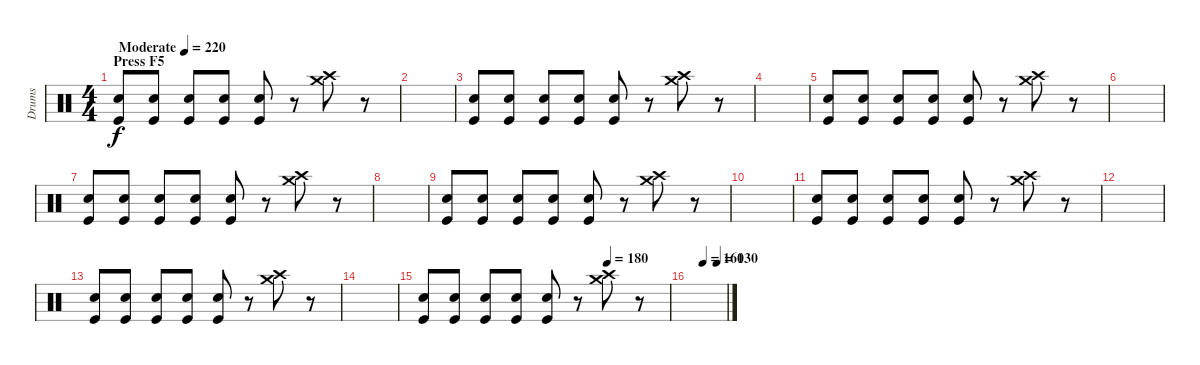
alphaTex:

\track ("Drums" "Drums") {instrument percussion}
\staff {score}
\articulation defaults
\ts (4 4)
\section ("" "Press F5")
\tempo (220 "Moderate")
\clef neutral
\ks c
("Electric Snare (hit)" "Kick (hit)").8{dy f} ("Electric Snare (hit)" "Kick (hit)").8 ("Electric Snare (hit)" "Kick (hit)").8 ("Electric Snare (hit)" "Kick (hit)").8 ("Electric Snare (hit)" "Kick (hit)").8 r.8 ("Crash high (hit)" "Crash medium (hit)").8 r.8 |
|
("Electric Snare (hit)" "Kick (hit)").8 ("Electric Snare (hit)" "Kick (hit)").8 ("Electric Snare (hit)" "Kick (hit)").8 ("Electric Snare (hit)" "Kick (hit)").8 ("Electric Snare (hit)" "Kick (hit)").8 r.8 ("Crash high (hit)" "Crash medium (hit)").8 r.8 |
|
("Electric Snare (hit)" "Kick (hit)").8 ("Electric Snare (hit)" "Kick (hit)").8 ("Electric Snare (hit)" "Kick (hit)").8 ("Electric Snare (hit)" "Kick (hit)").8 ("Electric Snare (hit)" "Kick (hit)").8 r.8 ("Crash high (hit)" "Crash medium (hit)").8 r.8 |
|
("Electric Snare (hit)" "Kick (hit)").8 ("Electric Snare (hit)" "Kick (hit)").8 ("Electric Snare (hit)" "Kick (hit)").8 ("Electric Snare (hit)" "Kick (hit)").8 ("Electric Snare (hit)" "Kick (hit)").8 r.8 ("Crash high (hit)" "Crash medium (hit)").8 r.8 |
|
("Electric Snare (hit)" "Kick (hit)").8 ("Electric Snare (hit)" "Kick (hit)").8 ("Electric Snare (hit)" "Kick (hit)").8 ("Electric Snare (hit)" "Kick (hit)").8 ("Electric Snare (hit)" "Kick (hit)").8 r.8 ("Crash high (hit)" "Crash medium (hit)").8 r.8 |
|
("Electric Snare (hit)" "Kick (hit)").8 ("Electric Snare (hit)" "Kick (hit)").8 ("Electric Snare (hit)" "Kick (hit)").8 ("Electric Snare (hit)" "Kick (hit)").8 ("Electric Snare (hit)" "Kick (hit)").8 r.8 ("Crash high (hit)" "Crash medium (hit)").8 r.8 |
|
("Electric Snare (hit)" "Kick (hit)").8 ("Electric Snare (hit)" "Kick (hit)").8 ("Electric Snare (hit)" "Kick (hit)").8 ("Electric Snare (hit)" "Kick (hit)").8 ("Electric Snare (hit)" "Kick (hit)").8 r.8 ("Crash high (hit)" "Crash medium (hit)").8 r.8 |
|
\tempo (180 0.75)
("Electric Snare (hit)" "Kick (hit)").8 ("Electric Snare (hit)" "Kick (hit)").8 ("Electric Snare (hit)" "Kick (hit)").8 ("Electric Snare (hit)" "Kick (hit)").8 ("Electric Snare (hit)" "Kick (hit)").8 r.8 ("Crash high (hit)" "Crash medium (hit)").8 r.8 |
\tempo (160 0.375)
\tempo (130 0.75)
